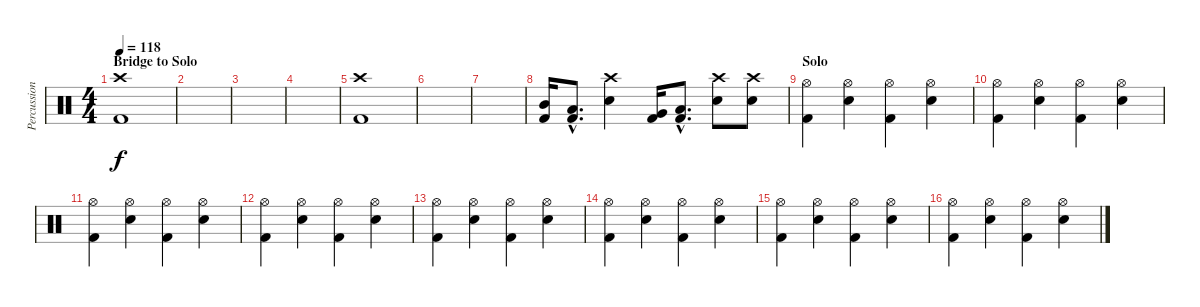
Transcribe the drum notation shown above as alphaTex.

\track ("Percussion" "Percussion") {instrument percussion}
\staff {score}
\articulation defaults
\ts (4 4)
\section ("" "Bridge to Solo")
\tempo 118
\clef neutral
\ks c
("Crash high (hit)" "Kick (hit) 2").1{dy f} |
|
|
|
("Crash high (hit)" "Kick (hit) 2").1 |
|
|
("Mid Tom (hit)" "Kick (hit) 2").16 ("Low Tom (hit)"{hac} "Kick (hit) 2"{hac}).8{d} ("Crash high (hit)" "Snare (hit) 2").4 ("Very Low Tom (hit)" "Kick (hit) 2").16 ("Low Floor Tom (hit)"{hac} "Kick (hit) 2"{hac}).8{d} ("Crash high (hit)" "Snare (hit) 2").8 ("Crash high (hit)" "Snare (hit) 2").8 |
\section ("" "Solo")
("Hi-Hat (open)" "Kick (hit) 2").4 ("Hi-Hat (open)" "Snare (hit) 2").4 ("Hi-Hat (open)" "Kick (hit) 2").4 ("Hi-Hat (open)" "Snare (hit) 2").4 |
("Hi-Hat (open)" "Kick (hit) 2").4 ("Hi-Hat (open)" "Snare (hit) 2").4 ("Hi-Hat (open)" "Kick (hit) 2").4 ("Hi-Hat (open)" "Snare (hit) 2").4 |
("Hi-Hat (open)" "Kick (hit) 2").4 ("Hi-Hat (open)" "Snare (hit) 2").4 ("Hi-Hat (open)" "Kick (hit) 2").4 ("Hi-Hat (open)" "Snare (hit) 2").4 |
("Hi-Hat (open)" "Kick (hit) 2").4 ("Hi-Hat (open)" "Snare (hit) 2").4 ("Hi-Hat (open)" "Kick (hit) 2").4 ("Hi-Hat (open)" "Snare (hit) 2").4 |
("Hi-Hat (open)" "Kick (hit) 2").4 ("Hi-Hat (open)" "Snare (hit) 2").4 ("Hi-Hat (open)" "Kick (hit) 2").4 ("Hi-Hat (open)" "Snare (hit) 2").4 |
("Hi-Hat (open)" "Kick (hit) 2").4 ("Hi-Hat (open)" "Snare (hit) 2").4 ("Hi-Hat (open)" "Kick (hit) 2").4 ("Hi-Hat (open)" "Snare (hit) 2").4 |
("Hi-Hat (open)" "Kick (hit) 2").4 ("Hi-Hat (open)" "Snare (hit) 2").4 ("Hi-Hat (open)" "Kick (hit) 2").4 ("Hi-Hat (open)" "Snare (hit) 2").4 |
("Hi-Hat (open)" "Kick (hit) 2").4 ("Hi-Hat (open)" "Snare (hit) 2").4 ("Hi-Hat (open)" "Kick (hit) 2").4 ("Hi-Hat (open)" "Snare (hit) 2").4
